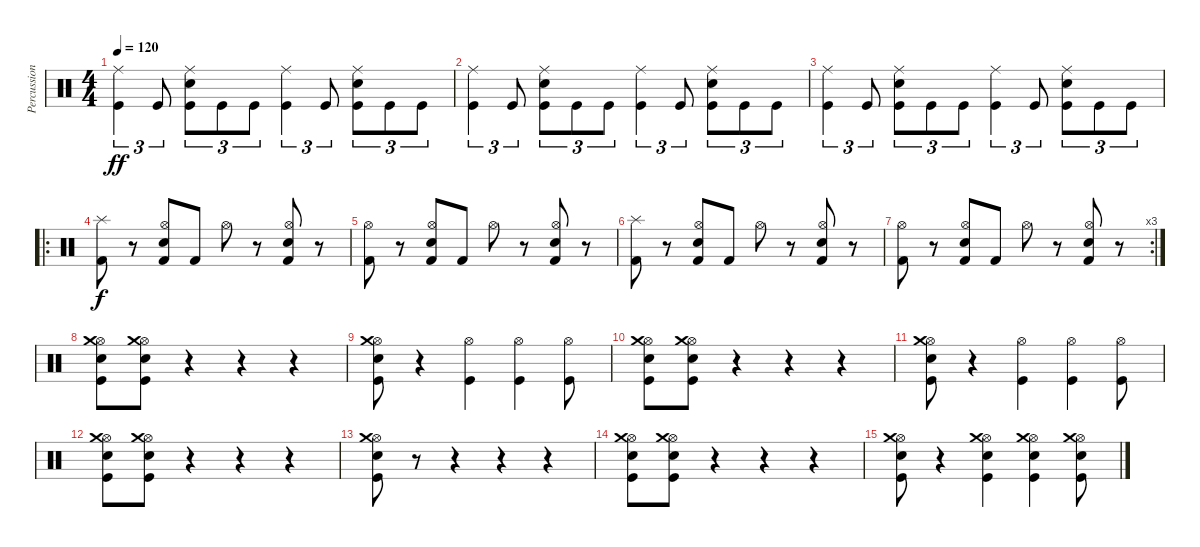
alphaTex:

\track ("Percussion" "Percussion") {instrument percussion}
\staff {score}
\articulation defaults
\ts (4 4)
\tempo 120
\clef neutral
\ks c
("Ride (middle)" "Kick (hit)").4{tu (3 2) dy ff} "Kick (hit)".8{tu (3 2)} ("Ride (middle)" "Electric Snare (hit)" "Kick (hit)").8{tu (3 2)} "Kick (hit)".8{tu (3 2)} "Kick (hit)".8{tu (3 2)} ("Ride (middle)" "Kick (hit)").4{tu (3 2)} "Kick (hit)".8{tu (3 2)} ("Ride (middle)" "Electric Snare (hit)" "Kick (hit)").8{tu (3 2)} "Kick (hit)".8{tu (3 2)} "Kick (hit)".8{tu (3 2)} |
("Ride (middle)" "Kick (hit)").4{tu (3 2)} "Kick (hit)".8{tu (3 2)} ("Ride (middle)" "Electric Snare (hit)" "Kick (hit)").8{tu (3 2)} "Kick (hit)".8{tu (3 2)} "Kick (hit)".8{tu (3 2)} ("Ride (middle)" "Kick (hit)").4{tu (3 2)} "Kick (hit)".8{tu (3 2)} ("Ride (middle)" "Electric Snare (hit)" "Kick (hit)").8{tu (3 2)} "Kick (hit)".8{tu (3 2)} "Kick (hit)".8{tu (3 2)} |
("Ride (middle)" "Kick (hit)").4{tu (3 2)} "Kick (hit)".8{tu (3 2)} ("Ride (middle)" "Electric Snare (hit)" "Kick (hit)").8{tu (3 2)} "Kick (hit)".8{tu (3 2)} "Kick (hit)".8{tu (3 2)} ("Ride (middle)" "Kick (hit)").4{tu (3 2)} "Kick (hit)".8{tu (3 2)} ("Ride (middle)" "Electric Snare (hit)" "Kick (hit)").8{tu (3 2)} "Kick (hit)".8{tu (3 2)} "Kick (hit)".8{tu (3 2)} |
\ro
("Kick (hit) 2" "Splash (hit)").8{dy f} r.8 ("Kick (hit) 2" "Hi-Hat (open)" "Snare (hit) 2").8 "Kick (hit) 2".8 "Hi-Hat (open)".8 r.8 ("Kick (hit) 2" "Hi-Hat (open)" "Snare (hit) 2").8 r.8 |
("Kick (hit) 2" "Hi-Hat (open)").8 r.8 ("Kick (hit) 2" "Hi-Hat (open)" "Snare (hit) 2").8 "Kick (hit) 2".8 "Hi-Hat (open)".8 r.8 ("Kick (hit) 2" "Hi-Hat (open)" "Snare (hit) 2").8 r.8 |
("Kick (hit) 2" "Splash (hit)").8 r.8 ("Kick (hit) 2" "Hi-Hat (open)" "Snare (hit) 2").8 "Kick (hit) 2".8 "Hi-Hat (open)".8 r.8 ("Kick (hit) 2" "Hi-Hat (open)" "Snare (hit) 2").8 r.8 |
\rc 3
("Kick (hit) 2" "Hi-Hat (open)").8 r.8 ("Kick (hit) 2" "Hi-Hat (open)" "Snare (hit) 2").8 "Kick (hit) 2".8 "Hi-Hat (open)".8 r.8 ("Kick (hit) 2" "Hi-Hat (open)" "Snare (hit) 2").8 r.8 |
("Electric Snare (hit)" "Hi-Hat (open)" "Crash medium (hit)" "Kick (hit)").8 ("Electric Snare (hit)" "Hi-Hat (open)" "Crash medium (hit)" "Kick (hit)").8 r.4 r.4 r.4 |
("Electric Snare (hit)" "Hi-Hat (open)" "Crash medium (hit)" "Kick (hit)").8 r.4 ("Hi-Hat (open)" "Kick (hit)").4 ("Hi-Hat (open)" "Kick (hit)").4 ("Hi-Hat (open)" "Kick (hit)").8 |
("Electric Snare (hit)" "Hi-Hat (open)" "Crash medium (hit)" "Kick (hit)").8 ("Electric Snare (hit)" "Hi-Hat (open)" "Crash medium (hit)" "Kick (hit)").8 r.4 r.4 r.4 |
("Electric Snare (hit)" "Hi-Hat (open)" "Crash medium (hit)" "Kick (hit)").8 r.4 ("Hi-Hat (open)" "Kick (hit)").4 ("Hi-Hat (open)" "Kick (hit)").4 ("Hi-Hat (open)" "Kick (hit)").8 |
("Electric Snare (hit)" "Hi-Hat (open)" "Crash medium (hit)" "Kick (hit)").8 ("Electric Snare (hit)" "Hi-Hat (open)" "Crash medium (hit)" "Kick (hit)").8 r.4 r.4 r.4 |
("Electric Snare (hit)" "Hi-Hat (open)" "Crash medium (hit)" "Kick (hit)").8 r.8 r.4 r.4 r.4 |
("Electric Snare (hit)" "Hi-Hat (open)" "Crash medium (hit)" "Kick (hit)").8 ("Electric Snare (hit)" "Hi-Hat (open)" "Crash medium (hit)" "Kick (hit)").8 r.4 r.4 r.4 |
("Electric Snare (hit)" "Hi-Hat (open)" "Crash medium (hit)" "Kick (hit)").8 r.4 ("Electric Snare (hit)" "Hi-Hat (open)" "Crash medium (hit)" "Kick (hit)").4 ("Electric Snare (hit)" "Hi-Hat (open)" "Crash medium (hit)" "Kick (hit)").4 ("Electric Snare (hit)" "Hi-Hat (open)" "Crash medium (hit)" "Kick (hit)").8
